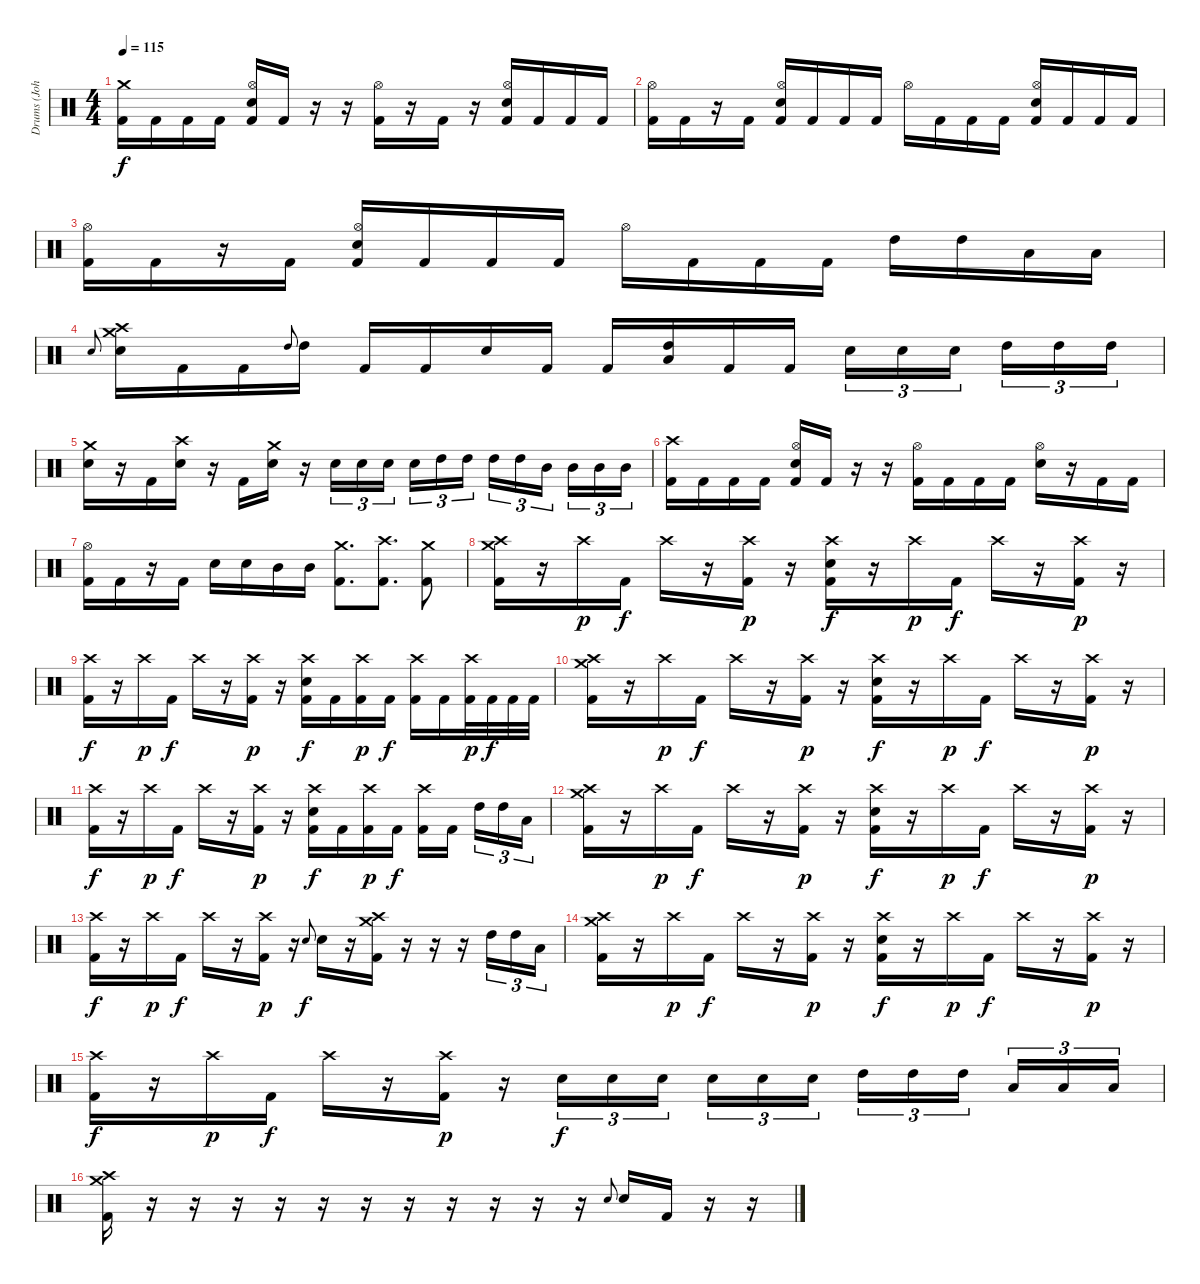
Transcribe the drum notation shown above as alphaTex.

\track ("Drums (Johno)" "Drums (Joh") {instrument percussion}
\staff {score}
\articulation defaults
\ts (4 4)
\tempo 115
\clef neutral
\ks c
("Crash medium (hit)" "Kick (hit) 2").16{dy f} "Kick (hit) 2".16 "Kick (hit) 2".16 "Kick (hit) 2".16 ("Hi-Hat (open)" "Electric Snare (hit)" "Kick (hit) 2").16 "Kick (hit) 2".16 r.16 r.16 ("Hi-Hat (open)" "Kick (hit) 2").16 r.16 "Kick (hit) 2".16 r.16 ("Hi-Hat (open)" "Electric Snare (hit)" "Kick (hit) 2").16 "Kick (hit) 2".16 "Kick (hit) 2".16 "Kick (hit) 2".16 |
("Hi-Hat (open)" "Kick (hit) 2").16 "Kick (hit) 2".16 r.16 "Kick (hit) 2".16 ("Hi-Hat (open)" "Electric Snare (hit)" "Kick (hit) 2").16 "Kick (hit) 2".16 "Kick (hit) 2".16 "Kick (hit) 2".16 "Hi-Hat (open)".16 "Kick (hit) 2".16 "Kick (hit) 2".16 "Kick (hit) 2".16 ("Hi-Hat (open)" "Electric Snare (hit)" "Kick (hit) 2").16 "Kick (hit) 2".16 "Kick (hit) 2".16 "Kick (hit) 2".16 |
("Hi-Hat (open)" "Kick (hit) 2").16 "Kick (hit) 2".16 r.16 "Kick (hit) 2".16 ("Hi-Hat (open)" "Electric Snare (hit)" "Kick (hit) 2").16 "Kick (hit) 2".16 "Kick (hit) 2".16 "Kick (hit) 2".16 "Hi-Hat (open)".16 "Kick (hit) 2".16 "Kick (hit) 2".16 "Kick (hit) 2".16 "High Tom (hit)".16 "High Tom (hit)".16 "Low Floor Tom (hit)".16 "Low Floor Tom (hit)".16 |
"Electric Snare (hit)".8{gr onbeat} ("Crash medium (hit)" "Crash high (hit)" "Electric Snare (hit)").16 "Kick (hit) 2".16 "Kick (hit) 2".16 "High Tom (hit)".8{gr onbeat} "High Tom (hit)".16 "Kick (hit) 2".16 "Kick (hit) 2".16 "Electric Snare (hit)".16 "Kick (hit) 2".16 "Kick (hit) 2".16 ("Low Floor Tom (hit)" "High Tom (hit)").16 "Kick (hit) 2".16 "Kick (hit) 2".16 "Electric Snare (hit)".16{tu (3 2)} "Electric Snare (hit)".16{tu (3 2)} "Electric Snare (hit)".16{tu (3 2) beam splitsecondary} "High Tom (hit)".16{tu (3 2)} "High Tom (hit)".16{tu (3 2)} "High Tom (hit)".16{tu (3 2)} |
("Crash medium (hit)" "Electric Snare (hit)").16 r.16 "Kick (hit) 2".16 ("Crash high (hit)" "Electric Snare (hit)").16 r.16 "Kick (hit) 2".16 ("Crash medium (hit)" "Electric Snare (hit)").16 r.16 "Electric Snare (hit)".16{tu (3 2)} "Electric Snare (hit)".16{tu (3 2)} "Electric Snare (hit)".16{tu (3 2) beam splitsecondary} "Electric Snare (hit)".16{tu (3 2)} "High Tom (hit)".16{tu (3 2)} "High Tom (hit)".16{tu (3 2)} "High Tom (hit)".16{tu (3 2)} "High Tom (hit)".16{tu (3 2)} "Mid Tom (hit)".16{tu (3 2) beam splitsecondary} "Mid Tom (hit)".16{tu (3 2)} "Mid Tom (hit)".16{tu (3 2)} "Mid Tom (hit)".16{tu (3 2)} |
("Crash high (hit)" "Kick (hit) 2").16 "Kick (hit) 2".16 "Kick (hit) 2".16 "Kick (hit) 2".16 ("Hi-Hat (open)" "Electric Snare (hit)" "Kick (hit) 2").16 "Kick (hit) 2".16 r.16 r.16 ("Hi-Hat (open)" "Kick (hit) 2").16 "Kick (hit) 2".16 "Kick (hit) 2".16 "Kick (hit) 2".16 ("Hi-Hat (open)" "Electric Snare (hit)").16 r.16 "Kick (hit) 2".16 "Kick (hit) 2".16 |
("Hi-Hat (open)" "Kick (hit) 2").16 "Kick (hit) 2".16 r.16 "Kick (hit) 2".16 "Electric Snare (hit)".16 "Electric Snare (hit)".16 "Mid Tom (hit)".16 "Mid Tom (hit)".16 ("Crash medium (hit)" "Kick (hit) 2").8{d} ("Crash high (hit)" "Kick (hit) 2").8{d} ("Crash medium (hit)" "Kick (hit) 2").8 |
("Crash high (hit)" "Crash medium (hit)" "Kick (hit) 2").16 r.16 "Crash high (hit)".16{dy p} "Kick (hit) 2".16{dy f} "Crash high (hit)".16 r.16 ("Crash high (hit)" "Kick (hit) 2").16{dy p} r.16 ("Crash high (hit)" "Electric Snare (hit)" "Kick (hit) 2").16{dy f} r.16 "Crash high (hit)".16{dy p} "Kick (hit) 2".16{dy f} "Crash high (hit)".16 r.16 ("Crash high (hit)" "Kick (hit) 2").16{dy p} r.16 |
("Crash high (hit)" "Kick (hit) 2").16{dy f} r.16 "Crash high (hit)".16{dy p} "Kick (hit) 2".16{dy f} "Crash high (hit)".16 r.16 ("Crash high (hit)" "Kick (hit) 2").16{dy p} r.16 ("Crash high (hit)" "Electric Snare (hit)" "Kick (hit) 2").16{dy f} "Kick (hit) 2".16 ("Crash high (hit)" "Kick (hit) 2").16{dy p} "Kick (hit) 2".16{dy f} ("Crash high (hit)" "Kick (hit) 2").16 "Kick (hit) 2".16 ("Crash high (hit)" "Kick (hit) 2").32{dy p} "Kick (hit) 2".32{dy f} "Kick (hit) 2".32 "Kick (hit) 2".32 |
("Crash high (hit)" "Crash medium (hit)" "Kick (hit) 2").16 r.16 "Crash high (hit)".16{dy p} "Kick (hit) 2".16{dy f} "Crash high (hit)".16 r.16 ("Crash high (hit)" "Kick (hit) 2").16{dy p} r.16 ("Crash high (hit)" "Electric Snare (hit)" "Kick (hit) 2").16{dy f} r.16 "Crash high (hit)".16{dy p} "Kick (hit) 2".16{dy f} "Crash high (hit)".16 r.16 ("Crash high (hit)" "Kick (hit) 2").16{dy p} r.16 |
("Crash high (hit)" "Kick (hit) 2").16{dy f} r.16 "Crash high (hit)".16{dy p} "Kick (hit) 2".16{dy f} "Crash high (hit)".16 r.16 ("Crash high (hit)" "Kick (hit) 2").16{dy p} r.16 ("Crash high (hit)" "Electric Snare (hit)" "Kick (hit) 2").16{dy f} "Kick (hit) 2".16 ("Crash high (hit)" "Kick (hit) 2").16{dy p} "Kick (hit) 2".16{dy f} ("Crash high (hit)" "Kick (hit) 2").16 "Kick (hit) 2".16{beam splitsecondary} "High Tom (hit)".16{tu (3 2)} "High Tom (hit)".16{tu (3 2)} "Low Floor Tom (hit)".16{tu (3 2)} |
("Crash high (hit)" "Crash medium (hit)" "Kick (hit) 2").16 r.16 "Crash high (hit)".16{dy p} "Kick (hit) 2".16{dy f} "Crash high (hit)".16 r.16 ("Crash high (hit)" "Kick (hit) 2").16{dy p} r.16 ("Crash high (hit)" "Electric Snare (hit)" "Kick (hit) 2").16{dy f} r.16 "Crash high (hit)".16{dy p} "Kick (hit) 2".16{dy f} "Crash high (hit)".16 r.16 ("Crash high (hit)" "Kick (hit) 2").16{dy p} r.16 |
("Crash high (hit)" "Kick (hit) 2").16{dy f} r.16 "Crash high (hit)".16{dy p} "Kick (hit) 2".16{dy f} "Crash high (hit)".16 r.16 ("Crash high (hit)" "Kick (hit) 2").16{dy p} r.16 "Electric Snare (hit)".8{gr onbeat dy f} "Electric Snare (hit)".16 r.16 ("Crash medium (hit)" "Crash high (hit)" "Kick (hit) 2").16 r.16 r.16 r.16 "High Tom (hit)".16{tu (3 2)} "High Tom (hit)".16{tu (3 2)} "Low Floor Tom (hit)".16{tu (3 2)} |
("Crash high (hit)" "Crash medium (hit)" "Kick (hit) 2").16 r.16 "Crash high (hit)".16{dy p} "Kick (hit) 2".16{dy f} "Crash high (hit)".16 r.16 ("Crash high (hit)" "Kick (hit) 2").16{dy p} r.16 ("Crash high (hit)" "Electric Snare (hit)" "Kick (hit) 2").16{dy f} r.16 "Crash high (hit)".16{dy p} "Kick (hit) 2".16{dy f} "Crash high (hit)".16 r.16 ("Crash high (hit)" "Kick (hit) 2").16{dy p} r.16 |
("Crash high (hit)" "Kick (hit) 2").16{dy f} r.16 "Crash high (hit)".16{dy p} "Kick (hit) 2".16{dy f} "Crash high (hit)".16 r.16 ("Crash high (hit)" "Kick (hit) 2").16{dy p} r.16 "Electric Snare (hit)".16{tu (3 2) dy f} "Electric Snare (hit)".16{tu (3 2)} "Electric Snare (hit)".16{tu (3 2) beam splitsecondary} "Electric Snare (hit)".16{tu (3 2)} "Electric Snare (hit)".16{tu (3 2)} "Electric Snare (hit)".16{tu (3 2)} "High Tom (hit)".16{tu (3 2)} "High Tom (hit)".16{tu (3 2)} "High Tom (hit)".16{tu (3 2) beam splitsecondary} "Low Floor Tom (hit)".16{tu (3 2)} "Low Floor Tom (hit)".16{tu (3 2)} "Low Floor Tom (hit)".16{tu (3 2)} |
("Crash high (hit)" "Crash medium (hit)" "Kick (hit) 2").16 r.16 r.16 r.16 r.16 r.16 r.16 r.16 r.16 r.16 r.16 r.16 "Electric Snare (hit)".8{gr onbeat} "Electric Snare (hit)".16 "Kick (hit) 2".16 r.16 r.16
